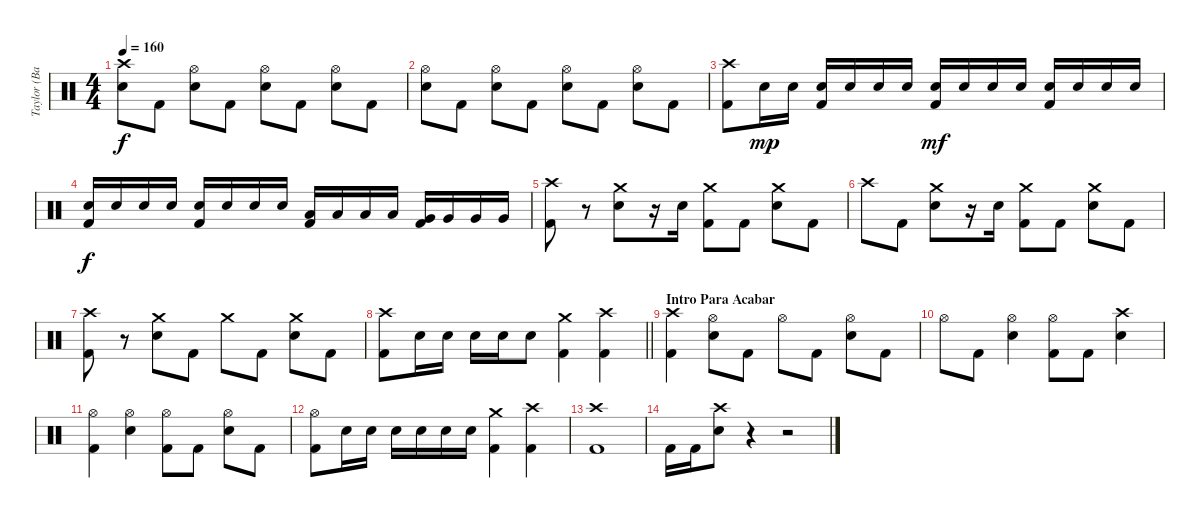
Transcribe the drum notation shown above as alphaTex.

\track ("Taylor (Batería)" "Taylor (Ba") {instrument percussion}
\staff {score}
\articulation defaults
\ts (4 4)
\tempo 160
\clef neutral
\ks c
("Crash high (hit)" "Electric Snare (hit)").8{dy f} "Kick (hit) 2".8 ("Hi-Hat (open)" "Electric Snare (hit)").8 "Kick (hit) 2".8 ("Hi-Hat (open)" "Electric Snare (hit)").8 "Kick (hit) 2".8 ("Hi-Hat (open)" "Electric Snare (hit)").8 "Kick (hit) 2".8 |
("Hi-Hat (open)" "Electric Snare (hit)").8 "Kick (hit) 2".8 ("Hi-Hat (open)" "Electric Snare (hit)").8 "Kick (hit) 2".8 ("Hi-Hat (open)" "Electric Snare (hit)").8 "Kick (hit) 2".8 ("Hi-Hat (open)" "Electric Snare (hit)").8 "Kick (hit) 2".8 |
("Crash high (hit)" "Kick (hit) 2").8 "Electric Snare (hit)".16{dy mp} "Electric Snare (hit)".16 ("Electric Snare (hit)" "Kick (hit) 2").16 "Electric Snare (hit)".16 "Electric Snare (hit)".16 "Electric Snare (hit)".16 ("Electric Snare (hit)" "Kick (hit) 2").16{dy mf} "Electric Snare (hit)".16 "Electric Snare (hit)".16 "Electric Snare (hit)".16 ("Electric Snare (hit)" "Kick (hit) 2").16 "Electric Snare (hit)".16 "Electric Snare (hit)".16 "Electric Snare (hit)".16 |
("Electric Snare (hit)" "Kick (hit) 2").16{dy f} "Electric Snare (hit)".16 "Electric Snare (hit)".16 "Electric Snare (hit)".16 ("Electric Snare (hit)" "Kick (hit) 2").16 "Electric Snare (hit)".16 "Electric Snare (hit)".16 "Electric Snare (hit)".16 ("Low Tom (hit)" "Kick (hit) 2").16 "Low Tom (hit)".16 "Low Tom (hit)".16 "Low Tom (hit)".16 ("Very Low Tom (hit)" "Kick (hit) 2").16 "Very Low Tom (hit)".16 "Very Low Tom (hit)".16 "Very Low Tom (hit)".16 |
("Crash high (hit)" "Kick (hit) 2").8 r.8 ("Crash medium (hit)" "Electric Snare (hit)").8 r.16 "Electric Snare (hit)".16 ("Crash medium (hit)" "Kick (hit) 2").8 "Kick (hit) 2".8 ("Crash medium (hit)" "Electric Snare (hit)").8 "Kick (hit) 2".8 |
"Crash high (hit)".8 "Kick (hit) 2".8 ("Crash medium (hit)" "Electric Snare (hit)").8 r.16 "Electric Snare (hit)".16 ("Crash medium (hit)" "Kick (hit) 2").8 "Kick (hit) 2".8 ("Crash medium (hit)" "Electric Snare (hit)").8 "Kick (hit) 2".8 |
("Crash high (hit)" "Kick (hit) 2").8 r.8 ("Crash medium (hit)" "Electric Snare (hit)").8 "Kick (hit) 2".8 "Crash medium (hit)".8 "Kick (hit) 2".8 ("Crash medium (hit)" "Electric Snare (hit)").8 "Kick (hit) 2".8 |
\barLineRight lightlight
("Crash high (hit)" "Kick (hit) 2").8 "Electric Snare (hit)".16 "Electric Snare (hit)".16 "Electric Snare (hit)".16 "Electric Snare (hit)".16 "Electric Snare (hit)".8 ("Crash medium (hit)" "Kick (hit) 2").4 ("Crash high (hit)" "Kick (hit) 2").4 |
\section ("" "Intro Para Acabar")
("Crash high (hit)" "Kick (hit) 2").4 ("Hi-Hat (open)" "Electric Snare (hit)").8 "Kick (hit) 2".8 "Hi-Hat (open)".8 "Kick (hit) 2".8 ("Hi-Hat (open)" "Electric Snare (hit)").8 "Kick (hit) 2".8 |
"Hi-Hat (open)".8 "Kick (hit) 2".8 ("Hi-Hat (open)" "Electric Snare (hit)").4 ("Hi-Hat (open)" "Kick (hit) 2").8 "Kick (hit) 2".8 ("Crash high (hit)" "Electric Snare (hit)").4 |
("Hi-Hat (open)" "Kick (hit) 2").4 ("Hi-Hat (open)" "Electric Snare (hit)").4 ("Hi-Hat (open)" "Kick (hit) 2").8 "Kick (hit) 2".8 ("Hi-Hat (open)" "Electric Snare (hit)").8 "Kick (hit) 2".8 |
("Hi-Hat (open)" "Kick (hit) 2").8 "Electric Snare (hit)".16 "Electric Snare (hit)".16 "Electric Snare (hit)".16 "Electric Snare (hit)".16 "Electric Snare (hit)".16 "Electric Snare (hit)".16 ("Crash medium (hit)" "Kick (hit) 2").4 ("Crash high (hit)" "Kick (hit) 2").4 |
("Crash high (hit)" "Kick (hit) 2").1 |
"Kick (hit) 2".16 "Kick (hit) 2".16 ("Crash high (hit)" "Electric Snare (hit)").8 r.4 r.2
